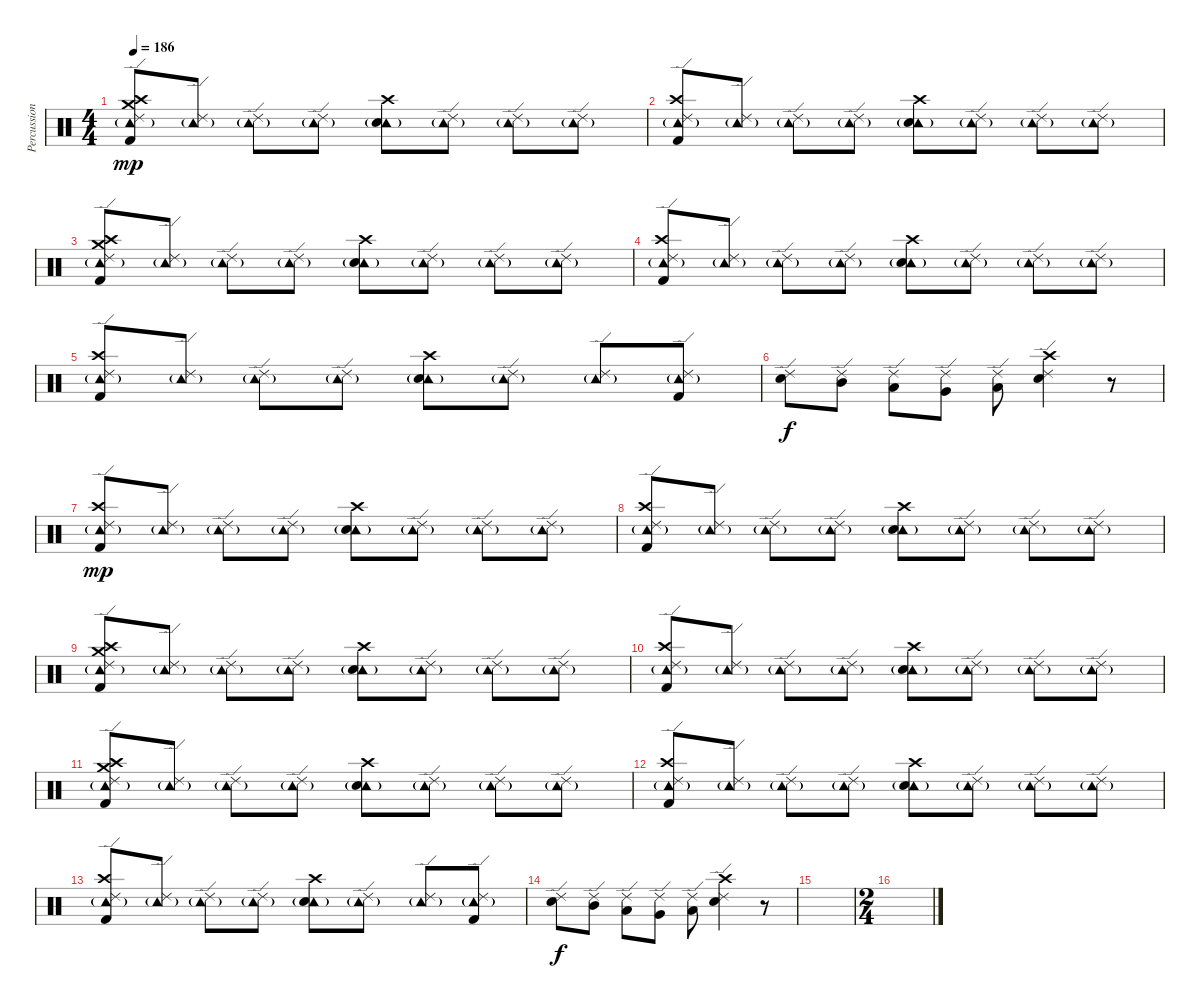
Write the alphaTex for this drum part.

\track ("Percussion" "Percussion") {instrument percussion}
\staff {score}
\articulation defaults
\ts (4 4)
\tempo 186
\clef neutral
\ks c
("Ride (edge) 2" "Tambourine (hit)"{g} "Crash high (hit)" "Crash medium (hit)" "Kick (hit) 2").8{dy mp} ("Ride (edge) 2" "Tambourine (hit)"{g}).8 ("Ride (edge) 2" "Tambourine (hit)"{g}).8 ("Ride (edge) 2" "Tambourine (hit)"{g}).8 ("Crash high (hit)" "Tambourine (hit)"{g} "Electric Snare (hit)").8 ("Ride (edge) 2" "Tambourine (hit)"{g}).8 ("Ride (edge) 2" "Tambourine (hit)"{g}).8 ("Ride (edge) 2" "Tambourine (hit)"{g}).8 |
("Ride (edge) 2" "Tambourine (hit)"{g} "Crash high (hit)" "Kick (hit) 2").8 ("Ride (edge) 2" "Tambourine (hit)"{g}).8 ("Ride (edge) 2" "Tambourine (hit)"{g}).8 ("Ride (edge) 2" "Tambourine (hit)"{g}).8 ("Crash high (hit)" "Tambourine (hit)"{g} "Electric Snare (hit)").8 ("Ride (edge) 2" "Tambourine (hit)"{g}).8 ("Ride (edge) 2" "Tambourine (hit)"{g}).8 ("Ride (edge) 2" "Tambourine (hit)"{g}).8 |
("Ride (edge) 2" "Tambourine (hit)"{g} "Crash high (hit)" "Crash medium (hit)" "Kick (hit) 2").8 ("Ride (edge) 2" "Tambourine (hit)"{g}).8 ("Ride (edge) 2" "Tambourine (hit)"{g}).8 ("Ride (edge) 2" "Tambourine (hit)"{g}).8 ("Crash high (hit)" "Tambourine (hit)"{g} "Electric Snare (hit)").8 ("Ride (edge) 2" "Tambourine (hit)"{g}).8 ("Ride (edge) 2" "Tambourine (hit)"{g}).8 ("Ride (edge) 2" "Tambourine (hit)"{g}).8 |
("Ride (edge) 2" "Tambourine (hit)"{g} "Crash high (hit)" "Kick (hit) 2").8 ("Ride (edge) 2" "Tambourine (hit)"{g}).8 ("Ride (edge) 2" "Tambourine (hit)"{g}).8 ("Ride (edge) 2" "Tambourine (hit)"{g}).8 ("Crash high (hit)" "Tambourine (hit)"{g} "Electric Snare (hit)").8 ("Ride (edge) 2" "Tambourine (hit)"{g}).8 ("Ride (edge) 2" "Tambourine (hit)"{g}).8 ("Ride (edge) 2" "Tambourine (hit)"{g}).8 |
("Ride (edge) 2" "Tambourine (hit)"{g} "Crash high (hit)" "Kick (hit) 2").8 ("Ride (edge) 2" "Tambourine (hit)"{g}).8 ("Ride (edge) 2" "Tambourine (hit)"{g}).8 ("Ride (edge) 2" "Tambourine (hit)"{g}).8 ("Crash high (hit)" "Tambourine (hit)"{g} "Electric Snare (hit)").8 ("Ride (edge) 2" "Tambourine (hit)"{g}).8 ("Ride (edge) 2" "Tambourine (hit)"{g}).8 ("Ride (edge) 2" "Tambourine (hit)"{g} "Kick (hit) 2").8 |
("Ride (edge) 2" "Electric Snare (hit)").8{dy f} ("Ride (edge) 2" "Mid Tom (hit)").8 ("Ride (edge) 2" "Low Tom (hit)").8 ("Ride (edge) 2" "Very Low Tom (hit)").8 ("Ride (edge) 2" "Low Floor Tom (hit)").8 ("Ride (edge) 2" "Crash high (hit)" "Electric Snare (hit)").4 r.8 |
("Ride (edge) 2" "Tambourine (hit)"{g} "Crash high (hit)" "Kick (hit) 2").8{dy mp} ("Ride (edge) 2" "Tambourine (hit)"{g}).8 ("Ride (edge) 2" "Tambourine (hit)"{g}).8 ("Ride (edge) 2" "Tambourine (hit)"{g}).8 ("Crash high (hit)" "Tambourine (hit)"{g} "Electric Snare (hit)").8 ("Ride (edge) 2" "Tambourine (hit)"{g}).8 ("Ride (edge) 2" "Tambourine (hit)"{g}).8 ("Ride (edge) 2" "Tambourine (hit)"{g}).8 |
("Ride (edge) 2" "Tambourine (hit)"{g} "Crash high (hit)" "Kick (hit) 2").8 ("Ride (edge) 2" "Tambourine (hit)"{g}).8 ("Ride (edge) 2" "Tambourine (hit)"{g}).8 ("Ride (edge) 2" "Tambourine (hit)"{g}).8 ("Crash high (hit)" "Tambourine (hit)"{g} "Electric Snare (hit)").8 ("Ride (edge) 2" "Tambourine (hit)"{g}).8 ("Ride (edge) 2" "Tambourine (hit)"{g}).8 ("Ride (edge) 2" "Tambourine (hit)"{g}).8 |
("Ride (edge) 2" "Tambourine (hit)"{g} "Crash high (hit)" "Crash medium (hit)" "Kick (hit) 2").8 ("Ride (edge) 2" "Tambourine (hit)"{g}).8 ("Ride (edge) 2" "Tambourine (hit)"{g}).8 ("Ride (edge) 2" "Tambourine (hit)"{g}).8 ("Crash high (hit)" "Tambourine (hit)"{g} "Electric Snare (hit)").8 ("Ride (edge) 2" "Tambourine (hit)"{g}).8 ("Ride (edge) 2" "Tambourine (hit)"{g}).8 ("Ride (edge) 2" "Tambourine (hit)"{g}).8 |
("Ride (edge) 2" "Tambourine (hit)"{g} "Crash high (hit)" "Kick (hit) 2").8 ("Ride (edge) 2" "Tambourine (hit)"{g}).8 ("Ride (edge) 2" "Tambourine (hit)"{g}).8 ("Ride (edge) 2" "Tambourine (hit)"{g}).8 ("Crash high (hit)" "Tambourine (hit)"{g} "Electric Snare (hit)").8 ("Ride (edge) 2" "Tambourine (hit)"{g}).8 ("Ride (edge) 2" "Tambourine (hit)"{g}).8 ("Ride (edge) 2" "Tambourine (hit)"{g}).8 |
("Ride (edge) 2" "Tambourine (hit)"{g} "Crash high (hit)" "Crash medium (hit)" "Kick (hit) 2").8 ("Ride (edge) 2" "Tambourine (hit)"{g}).8 ("Ride (edge) 2" "Tambourine (hit)"{g}).8 ("Ride (edge) 2" "Tambourine (hit)"{g}).8 ("Crash high (hit)" "Tambourine (hit)"{g} "Electric Snare (hit)").8 ("Ride (edge) 2" "Tambourine (hit)"{g}).8 ("Ride (edge) 2" "Tambourine (hit)"{g}).8 ("Ride (edge) 2" "Tambourine (hit)"{g}).8 |
("Ride (edge) 2" "Tambourine (hit)"{g} "Crash high (hit)" "Kick (hit) 2").8 ("Ride (edge) 2" "Tambourine (hit)"{g}).8 ("Ride (edge) 2" "Tambourine (hit)"{g}).8 ("Ride (edge) 2" "Tambourine (hit)"{g}).8 ("Crash high (hit)" "Tambourine (hit)"{g} "Electric Snare (hit)").8 ("Ride (edge) 2" "Tambourine (hit)"{g}).8 ("Ride (edge) 2" "Tambourine (hit)"{g}).8 ("Ride (edge) 2" "Tambourine (hit)"{g}).8 |
("Ride (edge) 2" "Tambourine (hit)"{g} "Crash high (hit)" "Kick (hit) 2").8 ("Ride (edge) 2" "Tambourine (hit)"{g}).8 ("Ride (edge) 2" "Tambourine (hit)"{g}).8 ("Ride (edge) 2" "Tambourine (hit)"{g}).8 ("Crash high (hit)" "Tambourine (hit)"{g} "Electric Snare (hit)").8 ("Ride (edge) 2" "Tambourine (hit)"{g}).8 ("Ride (edge) 2" "Tambourine (hit)"{g}).8 ("Ride (edge) 2" "Tambourine (hit)"{g} "Kick (hit) 2").8 |
("Ride (edge) 2" "Electric Snare (hit)").8{dy f} ("Ride (edge) 2" "Mid Tom (hit)").8 ("Ride (edge) 2" "Low Tom (hit)").8 ("Ride (edge) 2" "Very Low Tom (hit)").8 ("Ride (edge) 2" "Low Floor Tom (hit)").8 ("Ride (edge) 2" "Crash high (hit)" "Electric Snare (hit)").4 r.8 |
|
\ts (2 4)
